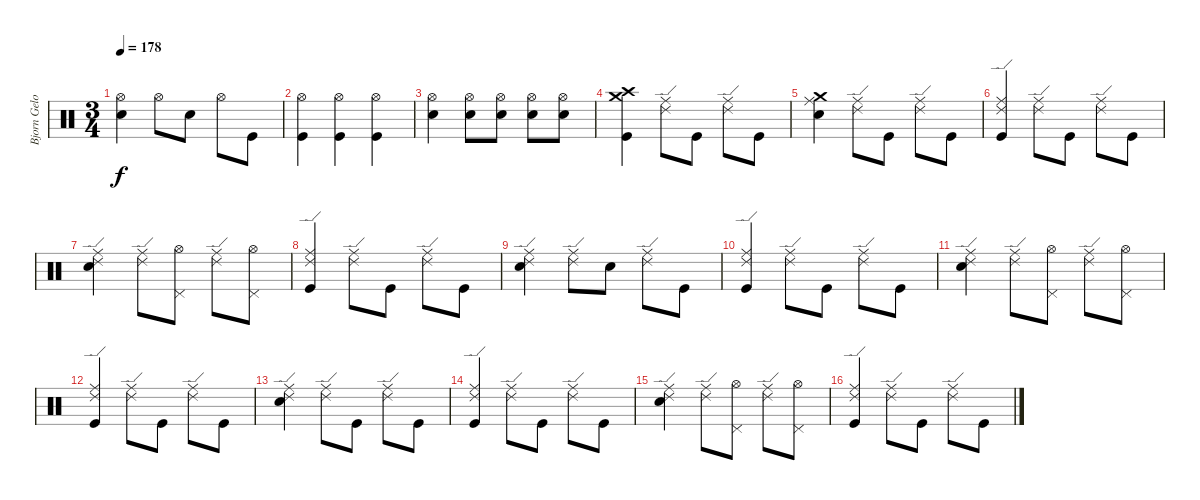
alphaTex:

\track ("Bjorn Gelotte-Drum" "Bjorn Gelo") {instrument percussion}
\staff {score}
\articulation defaults
\ts (3 4)
\tempo 178
\clef neutral
\ks c
("Electric Snare (hit)" "Hi-Hat (open)").4{dy f} "Hi-Hat (open)".8 "Electric Snare (hit)".8 "Hi-Hat (open)".8 "Kick (hit)".8 |
("Kick (hit)" "Hi-Hat (open)").4 ("Kick (hit)" "Hi-Hat (open)").4 ("Kick (hit)" "Hi-Hat (open)").4 |
("Electric Snare (hit)" "Hi-Hat (open)").4 ("Electric Snare (hit)" "Hi-Hat (open)").8 ("Electric Snare (hit)" "Hi-Hat (open)").8 ("Electric Snare (hit)" "Hi-Hat (open)").8 ("Electric Snare (hit)" "Hi-Hat (open)").8 |
("Kick (hit)" "Crash high (hit)" "Crash medium (hit)").4 ("Ride (middle)" "Ride (edge) 2").8 "Kick (hit)".8 ("Ride (middle)" "Ride (edge) 2").8 "Kick (hit)".8 |
("Electric Snare (hit)" "Ride (middle)" "Crash medium (hit)").4 ("Ride (middle)" "Ride (edge) 2").8 "Kick (hit)".8 ("Ride (middle)" "Ride (edge) 2").8 "Kick (hit)".8 |
("Kick (hit)" "Ride (middle)" "Ride (edge) 2").4 ("Ride (middle)" "Ride (edge) 2").8 "Kick (hit)".8 ("Ride (middle)" "Ride (edge) 2").8 "Kick (hit)".8 |
("Electric Snare (hit)" "Ride (middle)" "Ride (edge) 2").4 ("Ride (middle)" "Ride (edge) 2").8 ("Hi-Hat (open)" "Pedal Hi-Hat (hit)").8 ("Ride (middle)" "Ride (edge) 2").8 ("Hi-Hat (open)" "Pedal Hi-Hat (hit)").8 |
("Kick (hit)" "Ride (middle)" "Ride (edge) 2").4 ("Ride (middle)" "Ride (edge) 2").8 "Kick (hit)".8 ("Ride (middle)" "Ride (edge) 2").8 "Kick (hit)".8 |
("Electric Snare (hit)" "Ride (middle)" "Ride (edge) 2").4 ("Ride (middle)" "Ride (edge) 2").8 "Electric Snare (hit)".8 ("Ride (middle)" "Ride (edge) 2").8 "Kick (hit)".8 |
("Kick (hit)" "Ride (middle)" "Ride (edge) 2").4 ("Ride (middle)" "Ride (edge) 2").8 "Kick (hit)".8 ("Ride (middle)" "Ride (edge) 2").8 "Kick (hit)".8 |
("Electric Snare (hit)" "Ride (middle)" "Ride (edge) 2").4 ("Ride (middle)" "Ride (edge) 2").8 ("Hi-Hat (open)" "Pedal Hi-Hat (hit)").8 ("Ride (middle)" "Ride (edge) 2").8 ("Hi-Hat (open)" "Pedal Hi-Hat (hit)").8 |
("Kick (hit)" "Ride (middle)" "Ride (edge) 2").4 ("Ride (middle)" "Ride (edge) 2").8 "Kick (hit)".8 ("Ride (middle)" "Ride (edge) 2").8 "Kick (hit)".8 |
("Electric Snare (hit)" "Ride (middle)" "Ride (edge) 2").4 ("Ride (middle)" "Ride (edge) 2").8 "Kick (hit)".8 ("Ride (middle)" "Ride (edge) 2").8 "Kick (hit)".8 |
("Kick (hit)" "Ride (middle)" "Ride (edge) 2").4 ("Ride (middle)" "Ride (edge) 2").8 "Kick (hit)".8 ("Ride (middle)" "Ride (edge) 2").8 "Kick (hit)".8 |
("Electric Snare (hit)" "Ride (middle)" "Ride (edge) 2").4 ("Ride (middle)" "Ride (edge) 2").8 ("Hi-Hat (open)" "Pedal Hi-Hat (hit)").8 ("Ride (middle)" "Ride (edge) 2").8 ("Hi-Hat (open)" "Pedal Hi-Hat (hit)").8 |
("Kick (hit)" "Ride (middle)" "Ride (edge) 2").4 ("Ride (middle)" "Ride (edge) 2").8 "Kick (hit)".8 ("Ride (middle)" "Ride (edge) 2").8 "Kick (hit)".8
